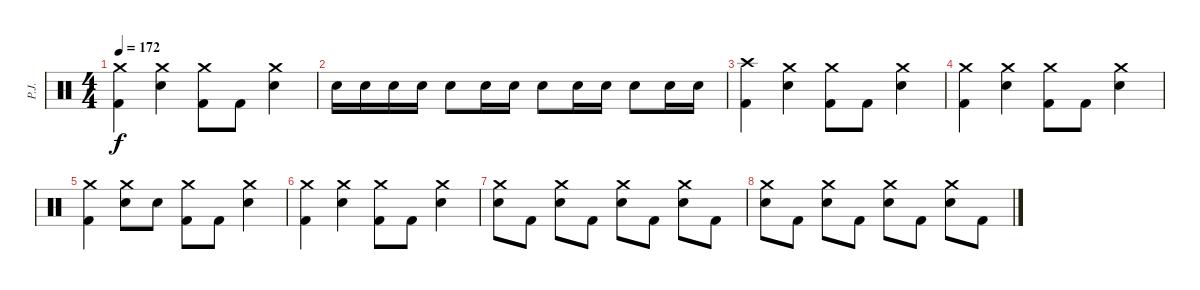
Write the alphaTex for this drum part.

\track ("P.J." "P.J.") {instrument percussion}
\staff {score}
\articulation defaults
\ts (4 4)
\tempo 172
\clef neutral
\ks c
("Crash medium (hit)" "Kick (hit) 2").4{dy f} ("Crash medium (hit)" "Electric Snare (hit)").4 ("Crash medium (hit)" "Kick (hit) 2").8 "Kick (hit) 2".8 ("Crash medium (hit)" "Electric Snare (hit)").4 |
"Electric Snare (hit)".16 "Electric Snare (hit)".16 "Electric Snare (hit)".16 "Electric Snare (hit)".16 "Electric Snare (hit)".8 "Electric Snare (hit)".16 "Electric Snare (hit)".16 "Electric Snare (hit)".8 "Electric Snare (hit)".16 "Electric Snare (hit)".16 "Electric Snare (hit)".8 "Electric Snare (hit)".16 "Electric Snare (hit)".16 |
("Crash high (hit)" "Kick (hit) 2").4{volume 1} ("Crash medium (hit)" "Electric Snare (hit)").4 ("Crash medium (hit)" "Kick (hit) 2").8 "Kick (hit) 2".8 ("Crash medium (hit)" "Electric Snare (hit)").4 |
("Crash medium (hit)" "Kick (hit) 2").4 ("Crash medium (hit)" "Electric Snare (hit)").4 ("Crash medium (hit)" "Kick (hit) 2").8 "Kick (hit) 2".8 ("Crash medium (hit)" "Electric Snare (hit)").4 |
("Crash medium (hit)" "Kick (hit) 2").4 ("Crash medium (hit)" "Electric Snare (hit)").8 "Electric Snare (hit)".8 ("Crash medium (hit)" "Kick (hit) 2").8 "Kick (hit) 2".8 ("Crash medium (hit)" "Electric Snare (hit)").4 |
("Crash medium (hit)" "Kick (hit) 2").4 ("Crash medium (hit)" "Electric Snare (hit)").4 ("Crash medium (hit)" "Kick (hit) 2").8 "Kick (hit) 2".8 ("Crash medium (hit)" "Electric Snare (hit)").4 |
("Crash medium (hit)" "Electric Snare (hit)").8 "Kick (hit) 2".8 ("Crash medium (hit)" "Electric Snare (hit)").8 "Kick (hit) 2".8 ("Crash medium (hit)" "Electric Snare (hit)").8 "Kick (hit) 2".8 ("Crash medium (hit)" "Electric Snare (hit)").8 "Kick (hit) 2".8 |
("Crash medium (hit)" "Electric Snare (hit)").8 "Kick (hit) 2".8 ("Crash medium (hit)" "Electric Snare (hit)").8 "Kick (hit) 2".8 ("Crash medium (hit)" "Electric Snare (hit)").8 "Kick (hit) 2".8 ("Crash medium (hit)" "Electric Snare (hit)").8 "Kick (hit) 2".8
